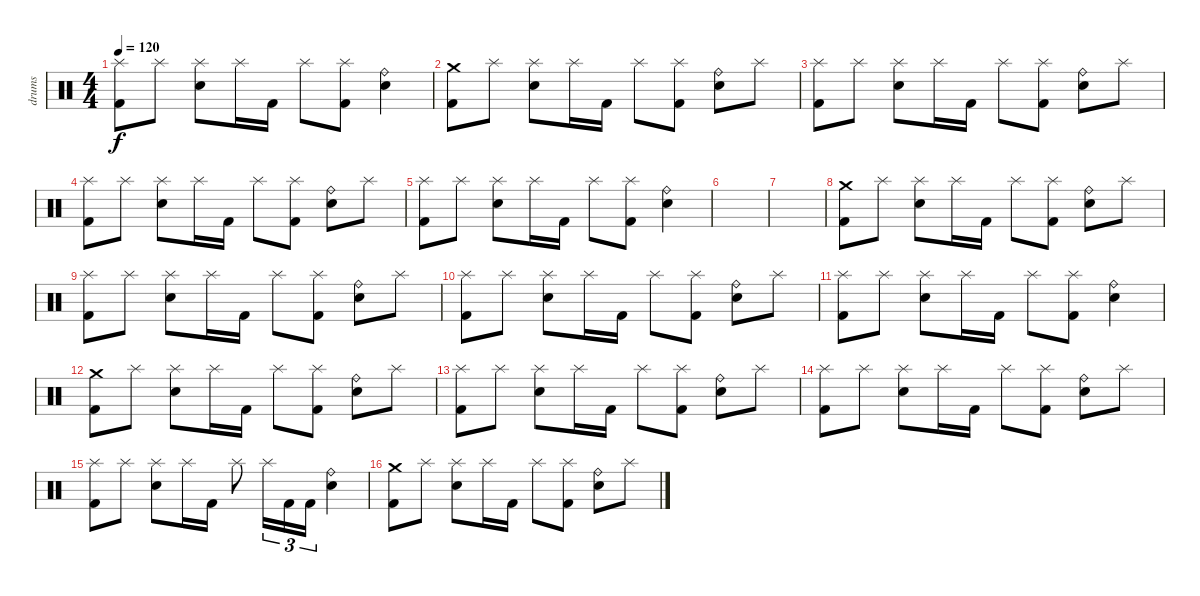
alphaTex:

\track ("drums" "drums") {instrument percussion}
\staff {score}
\articulation defaults
\ts (4 4)
\tempo 120
\clef neutral
\ks c
("Splash (hit)" "Kick (hit) 2").8{dy f} "Splash (hit)".8 ("Splash (hit)" "Electric Snare (hit)").8 "Splash (hit)".16 "Kick (hit) 2".16 "Splash (hit)".8 ("Splash (hit)" "Kick (hit) 2").8 ("Ride (bell)" "Electric Snare (hit)").4 |
("Crash medium (hit)" "Kick (hit) 2").8 "Splash (hit)".8 ("Splash (hit)" "Electric Snare (hit)").8 "Splash (hit)".16 "Kick (hit) 2".16 "Splash (hit)".8 ("Splash (hit)" "Kick (hit) 2").8 ("Ride (bell)" "Electric Snare (hit)").8 "Splash (hit)".8 |
("Splash (hit)" "Kick (hit) 2").8 "Splash (hit)".8 ("Splash (hit)" "Electric Snare (hit)").8 "Splash (hit)".16 "Kick (hit) 2".16 "Splash (hit)".8 ("Splash (hit)" "Kick (hit) 2").8 ("Ride (bell)" "Electric Snare (hit)").8 "Splash (hit)".8 |
("Splash (hit)" "Kick (hit) 2").8 "Splash (hit)".8 ("Splash (hit)" "Electric Snare (hit)").8 "Splash (hit)".16 "Kick (hit) 2".16 "Splash (hit)".8 ("Splash (hit)" "Kick (hit) 2").8 ("Ride (bell)" "Electric Snare (hit)").8 "Splash (hit)".8 |
("Splash (hit)" "Kick (hit) 2").8 "Splash (hit)".8 ("Splash (hit)" "Electric Snare (hit)").8 "Splash (hit)".16 "Kick (hit) 2".16 "Splash (hit)".8 ("Splash (hit)" "Kick (hit) 2").8 ("Ride (bell)" "Electric Snare (hit)").4 |
|
|
("Crash medium (hit)" "Kick (hit) 2").8 "Splash (hit)".8 ("Splash (hit)" "Electric Snare (hit)").8 "Splash (hit)".16 "Kick (hit) 2".16 "Splash (hit)".8 ("Splash (hit)" "Kick (hit) 2").8 ("Ride (bell)" "Electric Snare (hit)").8 "Splash (hit)".8 |
("Splash (hit)" "Kick (hit) 2").8 "Splash (hit)".8 ("Splash (hit)" "Electric Snare (hit)").8 "Splash (hit)".16 "Kick (hit) 2".16 "Splash (hit)".8 ("Splash (hit)" "Kick (hit) 2").8 ("Ride (bell)" "Electric Snare (hit)").8 "Splash (hit)".8 |
("Splash (hit)" "Kick (hit) 2").8 "Splash (hit)".8 ("Splash (hit)" "Electric Snare (hit)").8 "Splash (hit)".16 "Kick (hit) 2".16 "Splash (hit)".8 ("Splash (hit)" "Kick (hit) 2").8 ("Ride (bell)" "Electric Snare (hit)").8 "Splash (hit)".8 |
("Splash (hit)" "Kick (hit) 2").8 "Splash (hit)".8 ("Splash (hit)" "Electric Snare (hit)").8 "Splash (hit)".16 "Kick (hit) 2".16 "Splash (hit)".8 ("Splash (hit)" "Kick (hit) 2").8 ("Ride (bell)" "Electric Snare (hit)").4 |
("Crash medium (hit)" "Kick (hit) 2").8 "Splash (hit)".8 ("Splash (hit)" "Electric Snare (hit)").8 "Splash (hit)".16 "Kick (hit) 2".16 "Splash (hit)".8 ("Splash (hit)" "Kick (hit) 2").8 ("Ride (bell)" "Electric Snare (hit)").8 "Splash (hit)".8 |
("Splash (hit)" "Kick (hit) 2").8 "Splash (hit)".8 ("Splash (hit)" "Electric Snare (hit)").8 "Splash (hit)".16 "Kick (hit) 2".16 "Splash (hit)".8 ("Splash (hit)" "Kick (hit) 2").8 ("Ride (bell)" "Electric Snare (hit)").8 "Splash (hit)".8 |
("Splash (hit)" "Kick (hit) 2").8 "Splash (hit)".8 ("Splash (hit)" "Electric Snare (hit)").8 "Splash (hit)".16 "Kick (hit) 2".16 "Splash (hit)".8 ("Splash (hit)" "Kick (hit) 2").8 ("Ride (bell)" "Electric Snare (hit)").8 "Splash (hit)".8 |
("Splash (hit)" "Kick (hit) 2").8 "Splash (hit)".8 ("Splash (hit)" "Electric Snare (hit)").8 "Splash (hit)".16 "Kick (hit) 2".16 "Splash (hit)".8 "Splash (hit)".16{tu (3 2)} "Kick (hit) 2".16{tu (3 2)} "Kick (hit) 2".16{tu (3 2)} ("Ride (bell)" "Electric Snare (hit)").4 |
("Crash medium (hit)" "Kick (hit) 2").8 "Splash (hit)".8 ("Splash (hit)" "Electric Snare (hit)").8 "Splash (hit)".16 "Kick (hit) 2".16 "Splash (hit)".8 ("Splash (hit)" "Kick (hit) 2").8 ("Ride (bell)" "Electric Snare (hit)").8 "Splash (hit)".8
